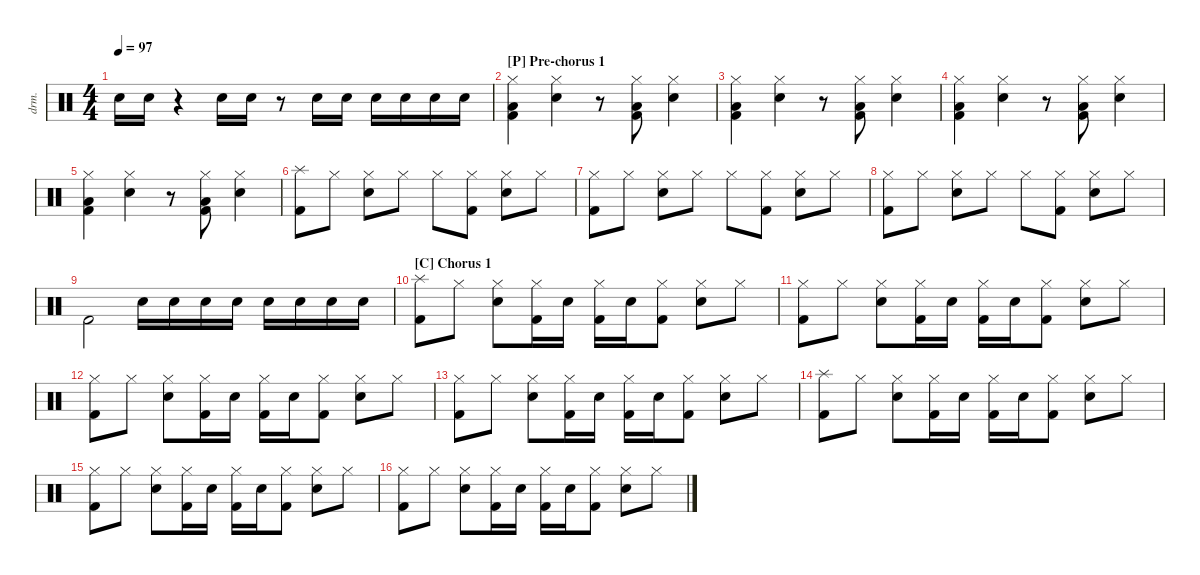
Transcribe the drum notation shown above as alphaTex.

\defaultSystemsLayout 4
\hideDynamics
\bracketExtendMode nobrackets
\otherSystemsTrackNameOrientation horizontal
\track ("Drumkit" "drm.") {instrument percussion}
\staff {score}
\articulation defaults
\ts (4 4)
\tempo 97
\clef neutral
\ks c "Snare (hit) 2".16{dy mf beam Down} "Snare (hit) 2".16{beam Down}
r.4{beam Down} "Snare (hit) 2".16{beam Down} "Snare (hit) 2".16{beam Down} r.8{beam Down} "Snare (hit) 2".16{beam Down} "Snare (hit) 2".16{beam Down} "Snare (hit) 2".16{beam Down} "Snare (hit) 2".16{beam Down} "Snare (hit) 2".16{beam Down} "Snare (hit) 2".16{beam Down} |
\section ("P" "Pre-chorus 1")
("Kick (hit) 2" "Hi-Hat (closed)" "Low Tom (hit)").4{beam Down} ("Hi-Hat (closed)" "Snare (hit) 2").4{beam Down} r.8{beam Down} ("Kick (hit) 2" "Hi-Hat (closed)" "Low Tom (hit)").8{beam Down} ("Hi-Hat (closed)" "Snare (hit) 2").4{beam Down} |
("Kick (hit) 2" "Hi-Hat (closed)" "Low Tom (hit)").4{beam Down} ("Hi-Hat (closed)" "Snare (hit) 2").4{beam Down} r.8{beam Down} ("Kick (hit) 2" "Hi-Hat (closed)" "Low Tom (hit)").8{beam Down} ("Hi-Hat (closed)" "Snare (hit) 2").4{beam Down} |
("Kick (hit) 2" "Hi-Hat (closed)" "Low Tom (hit)").4{beam Down} ("Hi-Hat (closed)" "Snare (hit) 2").4{beam Down} r.8{beam Down} ("Kick (hit) 2" "Hi-Hat (closed)" "Low Tom (hit)").8{beam Down} ("Hi-Hat (closed)" "Snare (hit) 2").4{beam Down} |
("Kick (hit) 2" "Hi-Hat (closed)" "Low Tom (hit)").4{beam Down} ("Hi-Hat (closed)" "Snare (hit) 2").4{beam Down} r.8{beam Down} ("Kick (hit) 2" "Hi-Hat (closed)" "Low Tom (hit)").8{beam Down} ("Hi-Hat (closed)" "Snare (hit) 2").4{beam Down} |
("Kick (hit) 2" "Splash (hit)").8{beam Down} "Hi-Hat (closed)".8{beam Down} ("Hi-Hat (closed)" "Snare (hit) 2").8{beam Down} "Hi-Hat (closed)".8{beam Down} "Hi-Hat (closed)".8{beam Down} ("Kick (hit) 2" "Hi-Hat (closed)").8{beam Down} ("Hi-Hat (closed)" "Snare (hit) 2").8{beam Down} "Hi-Hat (closed)".8{beam Down} |
("Kick (hit) 2" "Hi-Hat (closed)").8{beam Down} "Hi-Hat (closed)".8{beam Down} ("Hi-Hat (closed)" "Snare (hit) 2").8{beam Down} "Hi-Hat (closed)".8{beam Down} "Hi-Hat (closed)".8{beam Down} ("Kick (hit) 2" "Hi-Hat (closed)").8{beam Down} ("Hi-Hat (closed)" "Snare (hit) 2").8{beam Down} "Hi-Hat (closed)".8{beam Down} |
("Kick (hit) 2" "Hi-Hat (closed)").8{beam Down} "Hi-Hat (closed)".8{beam Down} ("Hi-Hat (closed)" "Snare (hit) 2").8{beam Down} "Hi-Hat (closed)".8{beam Down} "Hi-Hat (closed)".8{beam Down} ("Kick (hit) 2" "Hi-Hat (closed)").8{beam Down} ("Hi-Hat (closed)" "Snare (hit) 2").8{beam Down} "Hi-Hat (closed)".8{beam Down} |
"Kick (hit) 2".2{beam Down} "Snare (hit) 2".16{beam Down} "Snare (hit) 2".16{beam Down} "Snare (hit) 2".16{beam Down} "Snare (hit) 2".16{beam Down} "Snare (hit) 2".16{beam Down} "Snare (hit) 2".16{beam Down} "Snare (hit) 2".16{beam Down} "Snare (hit) 2".16{beam Down} |
\section ("C" "Chorus 1")
("Splash (hit)" "Kick (hit) 2").8{beam Down} "Hi-Hat (closed)".8{beam Down} ("Hi-Hat (closed)" "Snare (hit) 2").8{beam Down} ("Hi-Hat (closed)" "Kick (hit) 2").16{beam Down} "Snare (hit) 2".16{beam Down} ("Hi-Hat (closed)" "Kick (hit) 2").16{beam Down} "Snare (hit) 2".16{beam Down} ("Kick (hit) 2" "Hi-Hat (closed)").8{beam Down} ("Snare (hit) 2" "Hi-Hat (closed)").8{beam Down} "Hi-Hat (closed)".8{beam Down} |
("Kick (hit) 2" "Hi-Hat (closed)").8{beam Down} "Hi-Hat (closed)".8{beam Down} ("Hi-Hat (closed)" "Snare (hit) 2").8{beam Down} ("Hi-Hat (closed)" "Kick (hit) 2").16{beam Down} "Snare (hit) 2".16{beam Down} ("Hi-Hat (closed)" "Kick (hit) 2").16{beam Down} "Snare (hit) 2".16{beam Down} ("Kick (hit) 2" "Hi-Hat (closed)").8{beam Down} ("Snare (hit) 2" "Hi-Hat (closed)").8{beam Down} "Hi-Hat (closed)".8{beam Down} |
("Kick (hit) 2" "Hi-Hat (closed)").8{beam Down} "Hi-Hat (closed)".8{beam Down} ("Hi-Hat (closed)" "Snare (hit) 2").8{beam Down} ("Hi-Hat (closed)" "Kick (hit) 2").16{beam Down} "Snare (hit) 2".16{beam Down} ("Hi-Hat (closed)" "Kick (hit) 2").16{beam Down} "Snare (hit) 2".16{beam Down} ("Kick (hit) 2" "Hi-Hat (closed)").8{beam Down} ("Snare (hit) 2" "Hi-Hat (closed)").8{beam Down} "Hi-Hat (closed)".8{beam Down} |
("Kick (hit) 2" "Hi-Hat (closed)").8{beam Down} "Hi-Hat (closed)".8{beam Down} ("Hi-Hat (closed)" "Snare (hit) 2").8{beam Down} ("Hi-Hat (closed)" "Kick (hit) 2").16{beam Down} "Snare (hit) 2".16{beam Down} ("Hi-Hat (closed)" "Kick (hit) 2").16{beam Down} "Snare (hit) 2".16{beam Down} ("Kick (hit) 2" "Hi-Hat (closed)").8{beam Down} ("Snare (hit) 2" "Hi-Hat (closed)").8{beam Down} "Hi-Hat (closed)".8{beam Down} |
("Splash (hit)" "Kick (hit) 2").8{beam Down} "Hi-Hat (closed)".8{beam Down} ("Hi-Hat (closed)" "Snare (hit) 2").8{beam Down} ("Hi-Hat (closed)" "Kick (hit) 2").16{beam Down} "Snare (hit) 2".16{beam Down} ("Hi-Hat (closed)" "Kick (hit) 2").16{beam Down} "Snare (hit) 2".16{beam Down} ("Kick (hit) 2" "Hi-Hat (closed)").8{beam Down} ("Snare (hit) 2" "Hi-Hat (closed)").8{beam Down} "Hi-Hat (closed)".8{beam Down} |
("Kick (hit) 2" "Hi-Hat (closed)").8{beam Down} "Hi-Hat (closed)".8{beam Down} ("Hi-Hat (closed)" "Snare (hit) 2").8{beam Down} ("Hi-Hat (closed)" "Kick (hit) 2").16{beam Down} "Snare (hit) 2".16{beam Down} ("Hi-Hat (closed)" "Kick (hit) 2").16{beam Down} "Snare (hit) 2".16{beam Down} ("Kick (hit) 2" "Hi-Hat (closed)").8{beam Down} ("Snare (hit) 2" "Hi-Hat (closed)").8{beam Down} "Hi-Hat (closed)".8{beam Down} |
("Kick (hit) 2" "Hi-Hat (closed)").8{beam Down} "Hi-Hat (closed)".8{beam Down} ("Hi-Hat (closed)" "Snare (hit) 2").8{beam Down} ("Hi-Hat (closed)" "Kick (hit) 2").16{beam Down} "Snare (hit) 2".16{beam Down} ("Hi-Hat (closed)" "Kick (hit) 2").16{beam Down} "Snare (hit) 2".16{beam Down} ("Kick (hit) 2" "Hi-Hat (closed)").8{beam Down} ("Snare (hit) 2" "Hi-Hat (closed)").8{beam Down} "Hi-Hat (closed)".8{beam Down}
